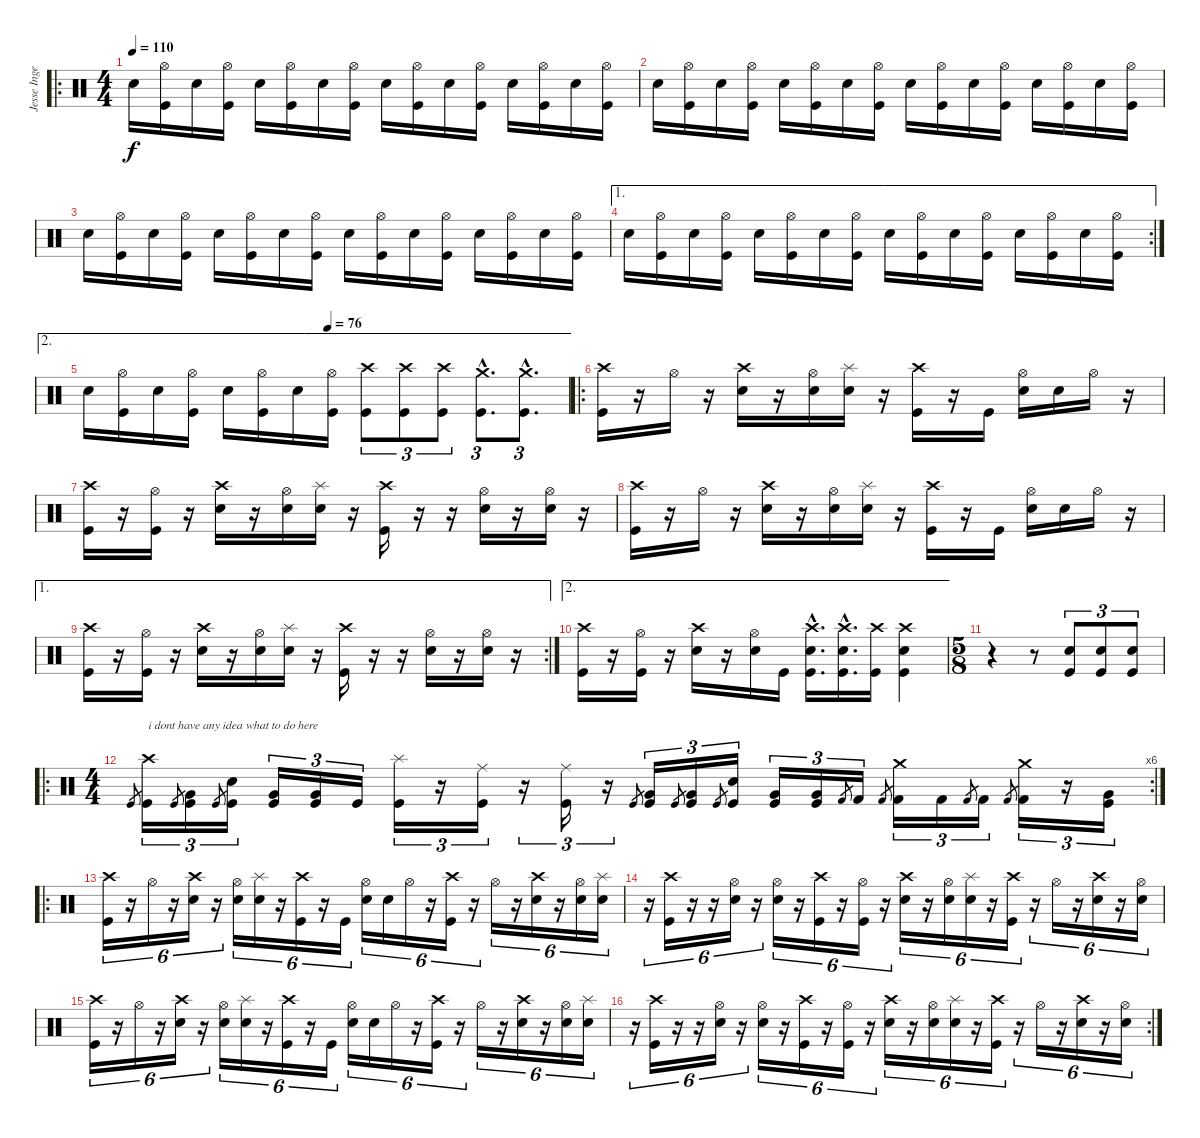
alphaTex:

\track ("Jesse Ingelevics" "Jesse Inge") {instrument percussion}
\staff {score}
\articulation defaults
\ro
\ts (4 4)
\tempo 110
\clef neutral
\ks c "Electric Snare (hit)".16{dy f}
("Hi-Hat (open)" "Kick (hit)").16 "Electric Snare (hit)".16 ("Hi-Hat (open)" "Kick (hit)").16 "Electric Snare (hit)".16 ("Hi-Hat (open)" "Kick (hit)").16 "Electric Snare (hit)".16 ("Hi-Hat (open)" "Kick (hit)").16 "Electric Snare (hit)".16 ("Hi-Hat (open)" "Kick (hit)").16 "Electric Snare (hit)".16 ("Hi-Hat (open)" "Kick (hit)").16 "Electric Snare (hit)".16 ("Hi-Hat (open)" "Kick (hit)").16 "Electric Snare (hit)".16 ("Hi-Hat (open)" "Kick (hit)").16 |
"Electric Snare (hit)".16 ("Hi-Hat (open)" "Kick (hit)").16 "Electric Snare (hit)".16 ("Hi-Hat (open)" "Kick (hit)").16 "Electric Snare (hit)".16 ("Hi-Hat (open)" "Kick (hit)").16 "Electric Snare (hit)".16 ("Hi-Hat (open)" "Kick (hit)").16 "Electric Snare (hit)".16 ("Hi-Hat (open)" "Kick (hit)").16 "Electric Snare (hit)".16 ("Hi-Hat (open)" "Kick (hit)").16 "Electric Snare (hit)".16 ("Hi-Hat (open)" "Kick (hit)").16 "Electric Snare (hit)".16 ("Hi-Hat (open)" "Kick (hit)").16 |
"Electric Snare (hit)".16 ("Hi-Hat (open)" "Kick (hit)").16 "Electric Snare (hit)".16 ("Hi-Hat (open)" "Kick (hit)").16 "Electric Snare (hit)".16 ("Hi-Hat (open)" "Kick (hit)").16 "Electric Snare (hit)".16 ("Hi-Hat (open)" "Kick (hit)").16 "Electric Snare (hit)".16 ("Hi-Hat (open)" "Kick (hit)").16 "Electric Snare (hit)".16 ("Hi-Hat (open)" "Kick (hit)").16 "Electric Snare (hit)".16 ("Hi-Hat (open)" "Kick (hit)").16 "Electric Snare (hit)".16 ("Hi-Hat (open)" "Kick (hit)").16 |
\ae 1
\rc 2 "Electric Snare (hit)".16
("Hi-Hat (open)" "Kick (hit)").16 "Electric Snare (hit)".16 ("Hi-Hat (open)" "Kick (hit)").16 "Electric Snare (hit)".16 ("Hi-Hat (open)" "Kick (hit)").16 "Electric Snare (hit)".16 ("Hi-Hat (open)" "Kick (hit)").16 "Electric Snare (hit)".16 ("Hi-Hat (open)" "Kick (hit)").16 "Electric Snare (hit)".16 ("Hi-Hat (open)" "Kick (hit)").16 "Electric Snare (hit)".16 ("Hi-Hat (open)" "Kick (hit)").16 "Electric Snare (hit)".16 ("Hi-Hat (open)" "Kick (hit)").16 |
\ae 2
\tempo (76 0.5)
"Electric Snare (hit)".16 ("Hi-Hat (open)" "Kick (hit)").16 "Electric Snare (hit)".16 ("Hi-Hat (open)" "Kick (hit)").16 "Electric Snare (hit)".16 ("Hi-Hat (open)" "Kick (hit)").16 "Electric Snare (hit)".16 ("Hi-Hat (open)" "Kick (hit)").16 ("Crash high (hit)" "Kick (hit)").8{tu (3 2)} ("Crash high (hit)" "Kick (hit)").8{tu (3 2)} ("Crash high (hit)" "Kick (hit)").8{tu (3 2)} ("Crash medium (hit)"{hac} "Kick (hit)"{hac}).8{d tu (3 2)} ("Crash medium (hit)"{hac} "Kick (hit)"{hac}).8{d tu (3 2)} |
\ro
("Crash high (hit)" "Kick (hit)").16 r.16 "Hi-Hat (open)".16 r.16 ("Crash high (hit)" "Electric Snare (hit)").16 r.16 ("Hi-Hat (open)" "Electric Snare (hit)").16 ("Splash (hit)" "Electric Snare (hit)").16 r.16 ("Crash high (hit)" "Kick (hit)").16 r.16 "Kick (hit)".16 ("Hi-Hat (open)" "Electric Snare (hit)").16 "Electric Snare (hit)".16 "Hi-Hat (open)".16 r.16 |
("Crash high (hit)" "Kick (hit)").16 r.16 ("Hi-Hat (open)" "Kick (hit)").16 r.16 ("Crash high (hit)" "Electric Snare (hit)").16 r.16 ("Hi-Hat (open)" "Electric Snare (hit)").16 ("Splash (hit)" "Electric Snare (hit)").16 r.16 ("Crash high (hit)" "Kick (hit)").16 r.16 r.16 ("Hi-Hat (open)" "Electric Snare (hit)").16 r.16 ("Hi-Hat (open)" "Electric Snare (hit)").16 r.16 |
("Crash high (hit)" "Kick (hit)").16 r.16 "Hi-Hat (open)".16 r.16 ("Crash high (hit)" "Electric Snare (hit)").16 r.16 ("Hi-Hat (open)" "Electric Snare (hit)").16 ("Splash (hit)" "Electric Snare (hit)").16 r.16 ("Crash high (hit)" "Kick (hit)").16 r.16 "Kick (hit)".16 ("Hi-Hat (open)" "Electric Snare (hit)").16 "Electric Snare (hit)".16 "Hi-Hat (open)".16 r.16 |
\ae 1
\rc 2
("Crash high (hit)" "Kick (hit)").16 r.16 ("Hi-Hat (open)" "Kick (hit)").16 r.16 ("Crash high (hit)" "Electric Snare (hit)").16 r.16 ("Hi-Hat (open)" "Electric Snare (hit)").16 ("Splash (hit)" "Electric Snare (hit)").16 r.16 ("Crash high (hit)" "Kick (hit)").16 r.16 r.16 ("Hi-Hat (open)" "Electric Snare (hit)").16 r.16 ("Hi-Hat (open)" "Electric Snare (hit)").16 r.16 |
\ae 2
("Crash high (hit)" "Kick (hit)").16 r.16 ("Hi-Hat (open)" "Kick (hit)").16 r.16 ("Crash high (hit)" "Electric Snare (hit)").16 r.16 ("Hi-Hat (open)" "Electric Snare (hit)").16 "Kick (hit)".16 ("Crash high (hit)"{hac} "Electric Snare (hit)"{hac} "Kick (hit)"{hac}).16{d} ("Crash high (hit)"{hac} "Electric Snare (hit)"{hac} "Kick (hit)"{hac}).16{d} ("Crash high (hit)" "Kick (hit)").16 ("Crash high (hit)" "Electric Snare (hit)" "Kick (hit)").4 |
\ts (5 8)
r.4 r.8 ("Electric Snare (hit)" "Kick (hit)").8{tu (3 2)} ("Electric Snare (hit)" "Kick (hit)").8{tu (3 2)} ("Electric Snare (hit)" "Kick (hit)").8{tu (3 2)} |
\ro
\rc 6
\ts (4 4)
"Kick (hit)".8{gr} ("Crash high (hit)" "Kick (hit)").16{tu (3 2) txt "i dont have any idea what to do here"} "Kick (hit)".8{gr} ("Very Low Tom (hit)" "Kick (hit)").16{tu (3 2)} "Kick (hit)".8{gr} ("Electric Snare (hit)" "Kick (hit)").16{tu (3 2)} ("Very Low Tom (hit)" "Kick (hit)").16{tu (3 2)} ("Very Low Tom (hit)" "Kick (hit)").16{tu (3 2)} "Kick (hit)".16{tu (3 2)} ("Splash (hit)" "Kick (hit)").16{tu (3 2)} r.16{tu (3 2)} ("Ride (middle)" "Kick (hit)").16{tu (3 2)} r.16{tu (3 2)} ("Ride (middle)" "Kick (hit)").16{tu (3 2)} r.16{tu (3 2)} "Kick (hit)".8{gr} ("Very Low Tom (hit)" "Kick (hit)").16{tu (3 2)} "Kick (hit)".8{gr} ("Very Low Tom (hit)" "Kick (hit)").16{tu (3 2)} "Kick (hit)".8{gr} ("Electric Snare (hit)" "Kick (hit)").16{tu (3 2)} ("Very Low Tom (hit)" "Kick (hit)").16{tu (3 2)} ("Very Low Tom (hit)" "Kick (hit)").16{tu (3 2)} "Kick (hit) 2".8{gr} "Kick (hit) 2".16{tu (3 2)} "Kick (hit) 2".8{gr} ("Crash medium (hit)" "Kick (hit) 2").16{tu (3 2)} "Kick (hit) 2".16{tu (3 2)} "Kick (hit) 2".8{gr} "Kick (hit) 2".16{tu (3 2)} "Kick (hit) 2".8{gr} ("Crash medium (hit)" "Kick (hit) 2").16{tu (3 2)} r.16{tu (3 2)} ("Very Low Tom (hit)" "Kick (hit)").16{tu (3 2)} |
\ro
("Crash high (hit)" "Kick (hit)").16{tu (6 4)} r.16{tu (6 4)} "Hi-Hat (open)".16{tu (6 4)} r.16{tu (6 4)} ("Crash high (hit)" "Electric Snare (hit)").16{tu (6 4)} r.16{tu (6 4)} ("Hi-Hat (open)" "Electric Snare (hit)").16{tu (6 4)} ("Splash (hit)" "Electric Snare (hit)").16{tu (6 4)} r.16{tu (6 4)} ("Crash high (hit)" "Kick (hit)").16{tu (6 4)} r.16{tu (6 4)} "Kick (hit)".16{tu (6 4)} ("Hi-Hat (open)" "Electric Snare (hit)").16{tu (6 4)} "Electric Snare (hit)".16{tu (6 4)} "Hi-Hat (open)".16{tu (6 4)} r.16{tu (6 4)} ("Crash high (hit)" "Kick (hit)").16{tu (6 4)} r.16{tu (6 4)} "Hi-Hat (open)".16{tu (6 4)} r.16{tu (6 4)} ("Crash high (hit)" "Electric Snare (hit)").16{tu (6 4)} r.16{tu (6 4)} ("Hi-Hat (open)" "Electric Snare (hit)").16{tu (6 4)} ("Splash (hit)" "Electric Snare (hit)").16{tu (6 4)} |
r.16{tu (6 4)} ("Crash high (hit)" "Kick (hit)").16{tu (6 4)} r.16{tu (6 4)} r.16{tu (6 4)} ("Hi-Hat (open)" "Electric Snare (hit)").16{tu (6 4)} r.16{tu (6 4)} ("Hi-Hat (open)" "Electric Snare (hit)").16{tu (6 4)} r.16{tu (6 4)} ("Crash high (hit)" "Kick (hit)").16{tu (6 4)} r.16{tu (6 4)} ("Hi-Hat (open)" "Kick (hit)").16{tu (6 4)} r.16{tu (6 4)} ("Crash high (hit)" "Electric Snare (hit)").16{tu (6 4)} r.16{tu (6 4)} ("Hi-Hat (open)" "Electric Snare (hit)").16{tu (6 4)} ("Splash (hit)" "Electric Snare (hit)").16{tu (6 4)} r.16{tu (6 4)} ("Crash high (hit)" "Kick (hit)").16{tu (6 4)} r.16{tu (6 4)} "Hi-Hat (open)".16{tu (6 4)} r.16{tu (6 4)} ("Crash high (hit)" "Electric Snare (hit)").16{tu (6 4)} r.16{tu (6 4)} ("Hi-Hat (open)" "Electric Snare (hit)").16{tu (6 4)} |
("Crash high (hit)" "Kick (hit)").16{tu (6 4)} r.16{tu (6 4)} "Hi-Hat (open)".16{tu (6 4)} r.16{tu (6 4)} ("Crash high (hit)" "Electric Snare (hit)").16{tu (6 4)} r.16{tu (6 4)} ("Hi-Hat (open)" "Electric Snare (hit)").16{tu (6 4)} ("Splash (hit)" "Electric Snare (hit)").16{tu (6 4)} r.16{tu (6 4)} ("Crash high (hit)" "Kick (hit)").16{tu (6 4)} r.16{tu (6 4)} "Kick (hit)".16{tu (6 4)} ("Hi-Hat (open)" "Electric Snare (hit)").16{tu (6 4)} "Electric Snare (hit)".16{tu (6 4)} "Hi-Hat (open)".16{tu (6 4)} r.16{tu (6 4)} ("Crash high (hit)" "Kick (hit)").16{tu (6 4)} r.16{tu (6 4)} "Hi-Hat (open)".16{tu (6 4)} r.16{tu (6 4)} ("Crash high (hit)" "Electric Snare (hit)").16{tu (6 4)} r.16{tu (6 4)} ("Hi-Hat (open)" "Electric Snare (hit)").16{tu (6 4)} ("Splash (hit)" "Electric Snare (hit)").16{tu (6 4)} |
\rc 2
r.16{tu (6 4)} ("Crash high (hit)" "Kick (hit)").16{tu (6 4)} r.16{tu (6 4)} r.16{tu (6 4)} ("Hi-Hat (open)" "Electric Snare (hit)").16{tu (6 4)} r.16{tu (6 4)} ("Hi-Hat (open)" "Electric Snare (hit)").16{tu (6 4)} r.16{tu (6 4)} ("Crash high (hit)" "Kick (hit)").16{tu (6 4)} r.16{tu (6 4)} ("Hi-Hat (open)" "Kick (hit)").16{tu (6 4)} r.16{tu (6 4)} ("Crash high (hit)" "Electric Snare (hit)").16{tu (6 4)} r.16{tu (6 4)} ("Hi-Hat (open)" "Electric Snare (hit)").16{tu (6 4)} ("Splash (hit)" "Electric Snare (hit)").16{tu (6 4)} r.16{tu (6 4)} ("Crash high (hit)" "Kick (hit)").16{tu (6 4)} r.16{tu (6 4)} "Hi-Hat (open)".16{tu (6 4)} r.16{tu (6 4)} ("Crash high (hit)" "Electric Snare (hit)").16{tu (6 4)} r.16{tu (6 4)} ("Hi-Hat (open)" "Electric Snare (hit)").16{tu (6 4)}
